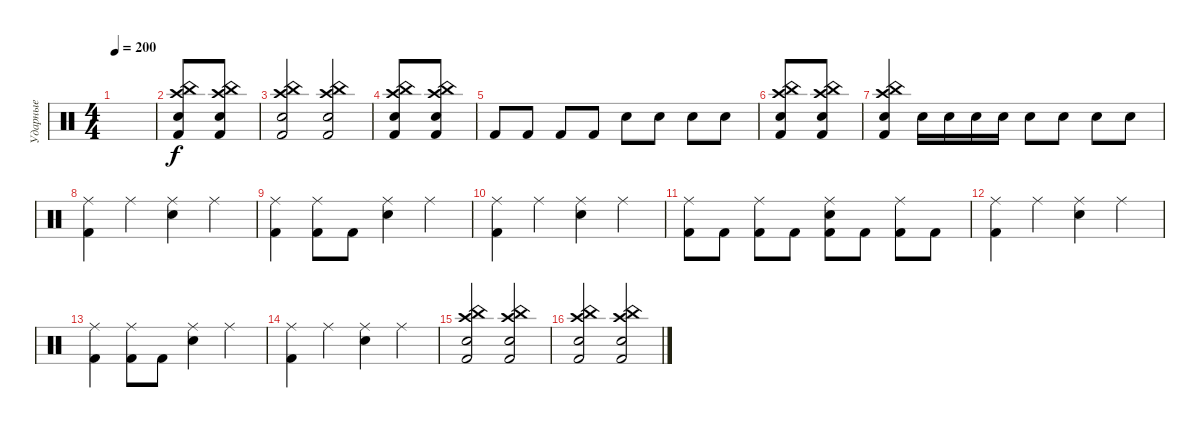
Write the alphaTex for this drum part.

\track ("Ударные" "Ударные") {instrument percussion}
\staff {score}
\articulation defaults
\ts (4 4)
\tempo 200
\clef neutral
\ks c
|
("Electric Snare (hit)" "Crash high (hit)" "China (hit)" "Kick (hit) 2").8 ("Electric Snare (hit)" "Kick (hit) 2" "Crash high (hit)" "China (hit)").8 |
("Kick (hit) 2" "Crash high (hit)" "China (hit)" "Electric Snare (hit)").2 ("China (hit)" "Crash high (hit)" "Kick (hit) 2" "Electric Snare (hit)").2 |
("Electric Snare (hit)" "Crash high (hit)" "China (hit)" "Kick (hit) 2").8 ("Electric Snare (hit)" "Kick (hit) 2" "Crash high (hit)" "China (hit)").8 |
"Kick (hit) 2".8 "Kick (hit) 2".8 "Kick (hit) 2".8 "Kick (hit) 2".8 "Snare (hit) 2".8 "Snare (hit) 2".8 "Snare (hit) 2".8 "Snare (hit) 2".8 |
("Electric Snare (hit)" "Crash high (hit)" "China (hit)" "Kick (hit) 2").8 ("Electric Snare (hit)" "Kick (hit) 2" "Crash high (hit)" "China (hit)").8 |
("Kick (hit) 2" "Electric Snare (hit)" "Crash high (hit)" "China (hit)").4 "Snare (hit) 2".16 "Snare (hit) 2".16 "Snare (hit) 2".16 "Snare (hit) 2".16 "Electric Snare (hit)".8 "Electric Snare (hit)".8 "Electric Snare (hit)".8 "Electric Snare (hit)".8 |
("Kick (hit) 2" "Ride (middle)").4 "Ride (middle)".4 ("Electric Snare (hit)" "Ride (middle)").4 "Ride (middle)".4 |
("Kick (hit) 2" "Ride (middle)").4 ("Kick (hit) 2" "Ride (middle)").8 "Kick (hit) 2".8 ("Electric Snare (hit)" "Ride (middle)").4 "Ride (middle)".4 |
("Kick (hit) 2" "Ride (middle)").4 "Ride (middle)".4 ("Electric Snare (hit)" "Ride (middle)").4 "Ride (middle)".4 |
("Kick (hit) 2" "Ride (middle)").8 "Kick (hit) 2".8 ("Kick (hit) 2" "Ride (middle)").8 "Kick (hit) 2".8 ("Kick (hit) 2" "Electric Snare (hit)" "Ride (middle)").8 "Kick (hit) 2".8 ("Kick (hit) 2" "Ride (middle)").8 "Kick (hit) 2".8 |
("Kick (hit) 2" "Ride (middle)").4 "Ride (middle)".4 ("Electric Snare (hit)" "Ride (middle)").4 "Ride (middle)".4 |
("Kick (hit) 2" "Ride (middle)").4 ("Kick (hit) 2" "Ride (middle)").8 "Kick (hit) 2".8 ("Electric Snare (hit)" "Ride (middle)").4 "Ride (middle)".4 |
("Kick (hit) 2" "Ride (middle)").4 "Ride (middle)".4 ("Electric Snare (hit)" "Ride (middle)").4 "Ride (middle)".4 |
("Kick (hit) 2" "Electric Snare (hit)" "Crash high (hit)" "China (hit)").2 ("China (hit)" "Crash high (hit)" "Kick (hit) 2" "Electric Snare (hit)").2 |
("Kick (hit) 2" "Electric Snare (hit)" "Crash high (hit)" "China (hit)").2 ("China (hit)" "Crash high (hit)" "Kick (hit) 2" "Electric Snare (hit)").2
